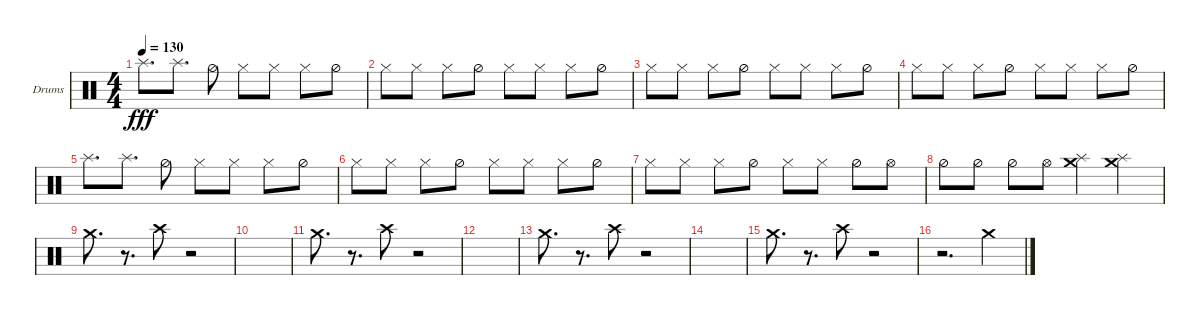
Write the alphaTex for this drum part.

\defaultSystemsLayout 4
\bracketExtendMode groupsimilarinstruments
\firstSystemTrackNameOrientation horizontal
\otherSystemsTrackNameOrientation horizontal
\track ("Helders" "Drums") {instrument percussion}
\staff {score}
\articulation defaults
\ts (4 4)
\tempo 130
\clef neutral
\ks c "Splash (hit)".8{d dy fff} "Splash (hit)".8{d} "Hi-Hat (half)".8 "Hi-Hat (closed)".8 "Hi-Hat (closed)".8 "Hi-Hat (closed)".8 "Hi-Hat (half)".8
|
"Hi-Hat (closed)".8 "Hi-Hat (closed)".8 "Hi-Hat (closed)".8 "Hi-Hat (half)".8 "Hi-Hat (closed)".8 "Hi-Hat (closed)".8 "Hi-Hat (closed)".8 "Hi-Hat (half)".8 |
"Hi-Hat (closed)".8 "Hi-Hat (closed)".8 "Hi-Hat (closed)".8 "Hi-Hat (half)".8 "Hi-Hat (closed)".8 "Hi-Hat (closed)".8 "Hi-Hat (closed)".8 "Hi-Hat (half)".8 |
"Hi-Hat (closed)".8 "Hi-Hat (closed)".8 "Hi-Hat (closed)".8 "Hi-Hat (half)".8 "Hi-Hat (closed)".8 "Hi-Hat (closed)".8 "Hi-Hat (closed)".8 "Hi-Hat (half)".8 |
"Splash (hit)".8{d} "Splash (hit)".8{d} "Hi-Hat (half)".8 "Hi-Hat (closed)".8 "Hi-Hat (closed)".8 "Hi-Hat (closed)".8 "Hi-Hat (half)".8 |
"Hi-Hat (closed)".8 "Hi-Hat (closed)".8 "Hi-Hat (closed)".8 "Hi-Hat (half)".8 "Hi-Hat (closed)".8 "Hi-Hat (closed)".8 "Hi-Hat (closed)".8 "Hi-Hat (half)".8 |
"Hi-Hat (closed)".8 "Hi-Hat (closed)".8 "Hi-Hat (closed)".8 "Hi-Hat (half)".8 "Hi-Hat (closed)".8 "Hi-Hat (closed)".8 "Hi-Hat (half)".8 "Hi-Hat (open)".8 |
"Hi-Hat (half)".8 "Hi-Hat (half)".8 "Hi-Hat (half)".8 "Hi-Hat (open)".8 ("Splash (hit)" "Crash medium (hit)").4 ("Splash (hit)" "Crash medium (hit)").4 |
"Crash medium (hit)".8{d} r.8{d} "Crash high (hit)".8 r.2 |
|
"Crash medium (hit)".8{d} r.8{d} "Crash high (hit)".8 r.2 |
|
"Crash medium (hit)".8{d} r.8{d} "Crash high (hit)".8 r.2 |
|
"Crash medium (hit)".8{d} r.8{d} "Crash high (hit)".8 r.2 |
r.2{d} "Crash medium (hit)".4
